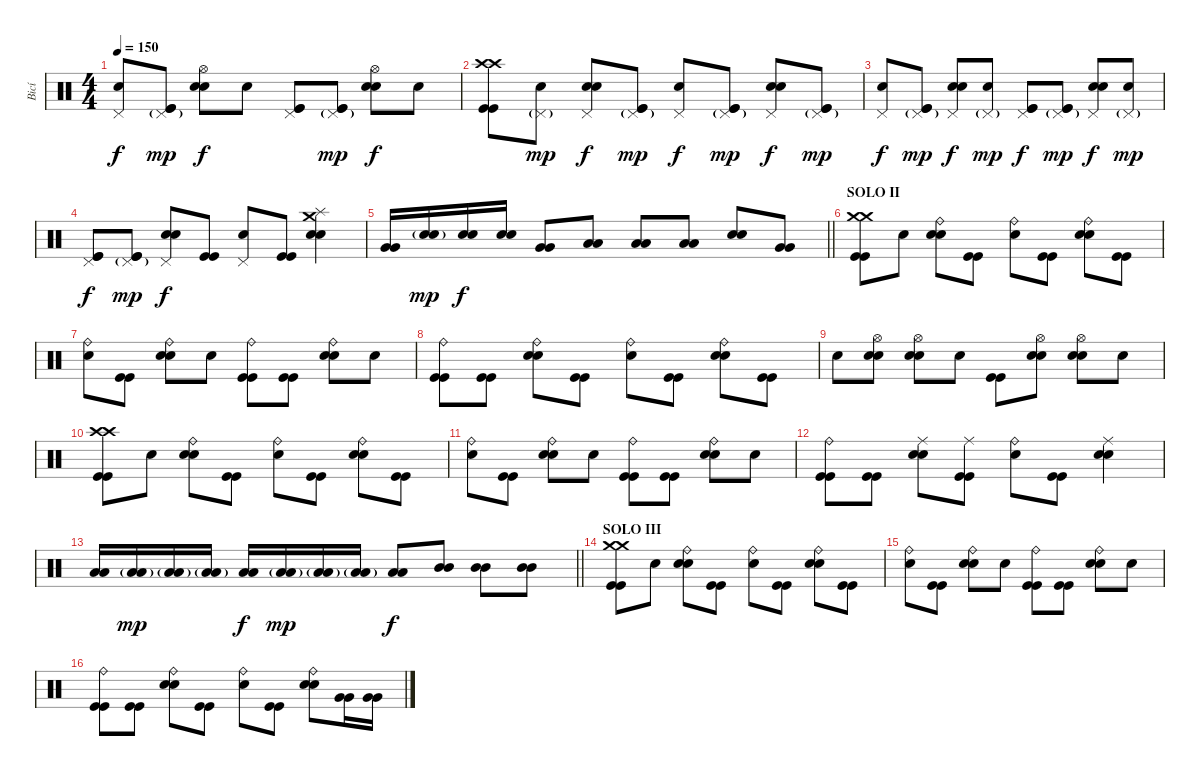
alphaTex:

\track ("Bicí" "Bicí") {instrument percussion}
\staff {score}
\articulation defaults
\ts (4 4)
\tempo 150
\clef neutral
\ks c
("Pedal Hi-Hat (hit)" "Snare (hit)").8{dy f} ("Pedal Hi-Hat (hit)"{g} "Kick (hit)" "Kick (hit)").8{dy mp} ("Hi-Hat (open)" "Electric Snare (hit)" "Electric Snare (hit)").8{dy f} "Snare (hit)".8 ("Pedal Hi-Hat (hit)" "Kick (hit)" "Kick (hit)").8 ("Pedal Hi-Hat (hit)"{g} "Kick (hit)" "Kick (hit)").8{dy mp} ("Hi-Hat (open)" "Electric Snare (hit)" "Electric Snare (hit)").8{dy f} "Snare (hit)".8 |
("Crash high (hit)" "Crash high (hit)" "Kick (hit)" "Kick (hit)").8 ("Pedal Hi-Hat (hit)"{g} "Snare (hit)").8{dy mp} ("Pedal Hi-Hat (hit)" "Electric Snare (hit)" "Electric Snare (hit)").8{dy f} ("Pedal Hi-Hat (hit)"{g} "Kick (hit)" "Kick (hit)").8{dy mp} ("Pedal Hi-Hat (hit)" "Snare (hit)").8{dy f} ("Pedal Hi-Hat (hit)"{g} "Kick (hit)" "Kick (hit)").8{dy mp} ("Pedal Hi-Hat (hit)" "Electric Snare (hit)" "Electric Snare (hit)").8{dy f} ("Pedal Hi-Hat (hit)"{g} "Kick (hit)" "Kick (hit)").8{dy mp} |
("Pedal Hi-Hat (hit)" "Snare (hit)").8{dy f} ("Pedal Hi-Hat (hit)"{g} "Kick (hit)" "Kick (hit)").8{dy mp} ("Pedal Hi-Hat (hit)" "Electric Snare (hit)" "Electric Snare (hit)").8{dy f} ("Pedal Hi-Hat (hit)"{g} "Snare (hit)").8{dy mp} ("Pedal Hi-Hat (hit)" "Kick (hit)" "Kick (hit)").8{dy f} ("Pedal Hi-Hat (hit)"{g} "Kick (hit)" "Kick (hit)").8{dy mp} ("Pedal Hi-Hat (hit)" "Electric Snare (hit)" "Electric Snare (hit)").8{dy f} ("Pedal Hi-Hat (hit)"{g} "Snare (hit)").8{dy mp} |
("Pedal Hi-Hat (hit)" "Kick (hit)" "Kick (hit)").8{dy f} ("Pedal Hi-Hat (hit)"{g} "Kick (hit)" "Kick (hit)").8{dy mp} ("Pedal Hi-Hat (hit)" "Electric Snare (hit)" "Electric Snare (hit)").8{dy f} ("Kick (hit)" "Kick (hit)").8 ("Pedal Hi-Hat (hit)" "Snare (hit)").8 ("Kick (hit)" "Kick (hit)").8 ("Crash medium (hit)" "Splash (hit)" "Electric Snare (hit)" "Electric Snare (hit)").4 |
\barLineRight lightlight
("Very Low Tom (hit)" "Very Low Tom (hit)").16 ("Electric Snare (hit)"{g} "Electric Snare (hit)"{g}).16{dy mp} ("Electric Snare (hit)" "Electric Snare (hit)").16{dy f} ("Electric Snare (hit)" "Electric Snare (hit)").16 ("Very Low Tom (hit)" "Very Low Tom (hit)").8 ("Low Tom (hit)" "Low Tom (hit)").8 ("Low Tom (hit)" "Low Tom (hit)").8 ("Low Tom (hit)" "Low Tom (hit)").8 ("Electric Snare (hit)" "Electric Snare (hit)").8 ("Very Low Tom (hit)" "Very Low Tom (hit)").8 |
\section ("" "SOLO II")
("Crash medium (hit)" "Crash medium (hit)" "Kick (hit)" "Kick (hit)").8 "Snare (hit)".8 ("Ride (bell)" "Electric Snare (hit)" "Electric Snare (hit)").8 ("Kick (hit)" "Kick (hit)").8 ("Ride (bell)" "Snare (hit)").8 ("Kick (hit)" "Kick (hit)").8 ("Ride (bell)" "Electric Snare (hit)" "Electric Snare (hit)").8 ("Kick (hit)" "Kick (hit)").8 |
("Ride (bell)" "Snare (hit)").8 ("Kick (hit)" "Kick (hit)").8 ("Ride (bell)" "Electric Snare (hit)" "Electric Snare (hit)").8 "Snare (hit)".8 ("Ride (bell)" "Kick (hit)" "Kick (hit)").8 ("Kick (hit)" "Kick (hit)").8 ("Ride (bell)" "Electric Snare (hit)" "Electric Snare (hit)").8 "Snare (hit)".8 |
("Ride (bell)" "Kick (hit)" "Kick (hit)").8 ("Kick (hit)" "Kick (hit)").8 ("Ride (bell)" "Electric Snare (hit)" "Electric Snare (hit)").8 ("Kick (hit)" "Kick (hit)").8 ("Ride (bell)" "Snare (hit)").8 ("Kick (hit)" "Kick (hit)").8 ("Ride (bell)" "Electric Snare (hit)" "Electric Snare (hit)").8 ("Kick (hit)" "Kick (hit)").8 |
"Snare (hit)".8 ("Hi-Hat (open)" "Electric Snare (hit)" "Electric Snare (hit)").8 ("Hi-Hat (open)" "Electric Snare (hit)" "Electric Snare (hit)").8 "Snare (hit)".8 ("Kick (hit)" "Kick (hit)").8 ("Hi-Hat (open)" "Electric Snare (hit)" "Electric Snare (hit)").8 ("Hi-Hat (open)" "Electric Snare (hit)" "Electric Snare (hit)").8 "Snare (hit)".8 |
("Crash high (hit)" "Crash high (hit)" "Kick (hit)" "Kick (hit)").8 "Snare (hit)".8 ("Ride (bell)" "Electric Snare (hit)" "Electric Snare (hit)").8 ("Kick (hit)" "Kick (hit)").8 ("Ride (bell)" "Snare (hit)").8 ("Kick (hit)" "Kick (hit)").8 ("Ride (bell)" "Electric Snare (hit)" "Electric Snare (hit)").8 ("Kick (hit)" "Kick (hit)").8 |
("Ride (bell)" "Snare (hit)").8 ("Kick (hit)" "Kick (hit)").8 ("Ride (bell)" "Electric Snare (hit)" "Electric Snare (hit)").8 "Snare (hit)".8 ("Ride (bell)" "Kick (hit)" "Kick (hit)").8 ("Kick (hit)" "Kick (hit)").8 ("Ride (bell)" "Electric Snare (hit)" "Electric Snare (hit)").8 "Snare (hit)".8 |
("Ride (bell)" "Kick (hit)" "Kick (hit)").8 ("Kick (hit)" "Kick (hit)").8 ("Ride (middle)" "Electric Snare (hit)" "Electric Snare (hit)").8 ("Ride (middle)" "Kick (hit)" "Kick (hit)").8 ("Ride (bell)" "Snare (hit)").8 ("Kick (hit)" "Kick (hit)").8 ("Ride (middle)" "Electric Snare (hit)" "Electric Snare (hit)").4 |
\barLineRight lightlight
("Low Tom (hit)" "Low Tom (hit)").16 ("Low Tom (hit)"{g} "Low Tom (hit)"{g}).16{dy mp} ("Low Tom (hit)"{g} "Low Tom (hit)"{g}).16 ("Low Tom (hit)"{g} "Low Tom (hit)"{g}).16 ("Low Tom (hit)" "Low Tom (hit)").16{dy f} ("Low Tom (hit)"{g} "Low Tom (hit)"{g}).16{dy mp} ("Low Tom (hit)"{g} "Low Tom (hit)"{g}).16 ("Low Tom (hit)"{g} "Low Tom (hit)"{g}).16 ("Low Tom (hit)" "Low Tom (hit)").8{dy f} ("Mid Tom (hit)" "Mid Tom (hit)").8 ("Mid Tom (hit)" "Mid Tom (hit)").8 ("Mid Tom (hit)" "Mid Tom (hit)").8 |
\section ("" "SOLO III")
("Crash medium (hit)" "Crash medium (hit)" "Kick (hit)" "Kick (hit)").8 "Snare (hit)".8 ("Ride (bell)" "Electric Snare (hit)" "Electric Snare (hit)").8 ("Kick (hit)" "Kick (hit)").8 ("Ride (bell)" "Snare (hit)").8 ("Kick (hit)" "Kick (hit)").8 ("Ride (bell)" "Electric Snare (hit)" "Electric Snare (hit)").8 ("Kick (hit)" "Kick (hit)").8 |
("Ride (bell)" "Snare (hit)").8 ("Kick (hit)" "Kick (hit)").8 ("Ride (bell)" "Electric Snare (hit)" "Electric Snare (hit)").8 "Snare (hit)".8 ("Ride (bell)" "Kick (hit)" "Kick (hit)").8 ("Kick (hit)" "Kick (hit)").8 ("Ride (bell)" "Electric Snare (hit)" "Electric Snare (hit)").8 "Snare (hit)".8 |
("Ride (bell)" "Kick (hit)" "Kick (hit)").8 ("Kick (hit)" "Kick (hit)").8 ("Ride (bell)" "Electric Snare (hit)" "Electric Snare (hit)").8 ("Kick (hit)" "Kick (hit)").8 ("Ride (bell)" "Snare (hit)").8 ("Kick (hit)" "Kick (hit)").8 ("Ride (bell)" "Electric Snare (hit)" "Electric Snare (hit)").8 ("Very Low Tom (hit)" "Very Low Tom (hit)").16 ("Very Low Tom (hit)" "Very Low Tom (hit)").16
